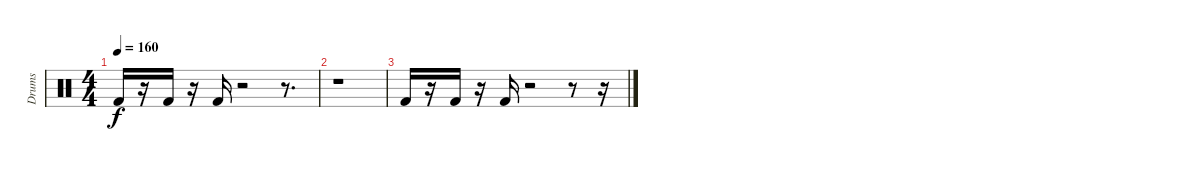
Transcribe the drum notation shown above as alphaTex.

\track ("Drums               " "Drums     ") {instrument percussion}
\staff {score}
\articulation defaults
\ts (4 4)
\tempo 160
\clef neutral
\ks c "Kick (hit) 2".16{dy f}
r.16 "Kick (hit) 2".16 r.16 "Kick (hit) 2".16 r.2 r.8{d} |
r.1 |
"Kick (hit) 2".16 r.16 "Kick (hit) 2".16 r.16 "Kick (hit) 2".16 r.2 r.8 r.16
